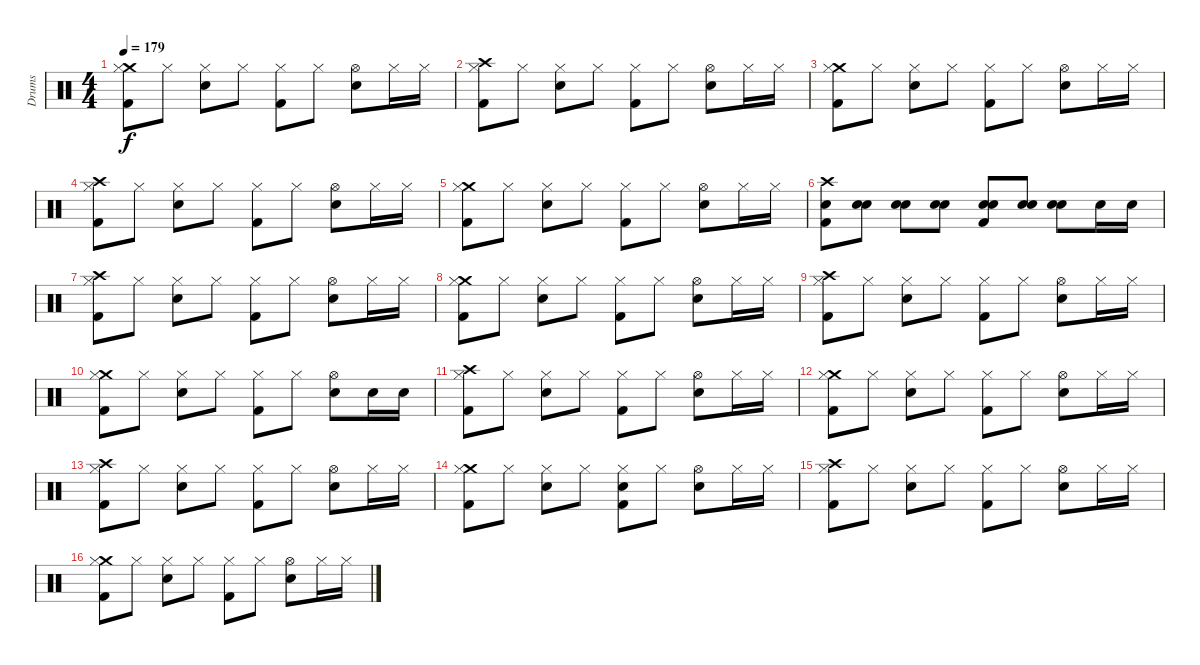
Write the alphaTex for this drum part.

\track ("Drums" "Drums") {instrument percussion}
\staff {score}
\articulation defaults
\ts (4 4)
\tempo 179
\clef neutral
\ks c
("Crash medium (hit)" "Hi-Hat (closed)" "Kick (hit) 2").8{dy f} "Hi-Hat (closed)".8 ("Hi-Hat (closed)" "Electric Snare (hit)").8 "Hi-Hat (closed)".8 ("Hi-Hat (closed)" "Kick (hit) 2").8 "Hi-Hat (closed)".8 ("Hi-Hat (open)" "Electric Snare (hit)").8 "Hi-Hat (closed)".16 "Hi-Hat (closed)".16 |
("Crash high (hit)" "Hi-Hat (closed)" "Kick (hit) 2").8 "Hi-Hat (closed)".8 ("Hi-Hat (closed)" "Electric Snare (hit)").8 "Hi-Hat (closed)".8 ("Hi-Hat (closed)" "Kick (hit) 2").8 "Hi-Hat (closed)".8 ("Hi-Hat (open)" "Electric Snare (hit)").8 "Hi-Hat (closed)".16 "Hi-Hat (closed)".16 |
("Crash medium (hit)" "Hi-Hat (closed)" "Kick (hit) 2").8 "Hi-Hat (closed)".8 ("Hi-Hat (closed)" "Electric Snare (hit)").8 "Hi-Hat (closed)".8 ("Hi-Hat (closed)" "Kick (hit) 2").8 "Hi-Hat (closed)".8 ("Hi-Hat (open)" "Electric Snare (hit)").8 "Hi-Hat (closed)".16 "Hi-Hat (closed)".16 |
("Crash high (hit)" "Hi-Hat (closed)" "Kick (hit) 2").8 "Hi-Hat (closed)".8 ("Hi-Hat (closed)" "Electric Snare (hit)").8 "Hi-Hat (closed)".8 ("Hi-Hat (closed)" "Kick (hit) 2").8 "Hi-Hat (closed)".8 ("Hi-Hat (open)" "Electric Snare (hit)").8 "Hi-Hat (closed)".16 "Hi-Hat (closed)".16 |
("Crash medium (hit)" "Hi-Hat (closed)" "Kick (hit) 2").8 "Hi-Hat (closed)".8 ("Hi-Hat (closed)" "Electric Snare (hit)").8 "Hi-Hat (closed)".8 ("Hi-Hat (closed)" "Kick (hit) 2").8 "Hi-Hat (closed)".8 ("Hi-Hat (open)" "Electric Snare (hit)").8 "Hi-Hat (closed)".16 "Hi-Hat (closed)".16 |
("Crash high (hit)" "Kick (hit) 2" "Electric Snare (hit)").8 ("Electric Snare (hit)" "Electric Snare (hit)").8 ("Electric Snare (hit)" "Electric Snare (hit)").8 ("Electric Snare (hit)" "Electric Snare (hit)").8 ("Kick (hit) 2" "Electric Snare (hit)" "Electric Snare (hit)").8 ("Electric Snare (hit)" "Electric Snare (hit)").8 ("Electric Snare (hit)" "Electric Snare (hit)").8 "Electric Snare (hit)".16 "Electric Snare (hit)".16 |
("Crash high (hit)" "Hi-Hat (closed)" "Kick (hit) 2").8 "Hi-Hat (closed)".8 ("Hi-Hat (closed)" "Electric Snare (hit)").8 "Hi-Hat (closed)".8 ("Hi-Hat (closed)" "Kick (hit) 2").8 "Hi-Hat (closed)".8 ("Hi-Hat (open)" "Electric Snare (hit)").8 "Hi-Hat (closed)".16 "Hi-Hat (closed)".16 |
("Crash medium (hit)" "Hi-Hat (closed)" "Kick (hit) 2").8 "Hi-Hat (closed)".8 ("Hi-Hat (closed)" "Electric Snare (hit)").8 "Hi-Hat (closed)".8 ("Hi-Hat (closed)" "Kick (hit) 2").8 "Hi-Hat (closed)".8 ("Hi-Hat (open)" "Electric Snare (hit)").8 "Hi-Hat (closed)".16 "Hi-Hat (closed)".16 |
("Crash high (hit)" "Hi-Hat (closed)" "Kick (hit) 2").8 "Hi-Hat (closed)".8 ("Hi-Hat (closed)" "Electric Snare (hit)").8 "Hi-Hat (closed)".8 ("Hi-Hat (closed)" "Kick (hit) 2").8 "Hi-Hat (closed)".8 ("Hi-Hat (open)" "Electric Snare (hit)").8 "Hi-Hat (closed)".16 "Hi-Hat (closed)".16 |
("Crash medium (hit)" "Hi-Hat (closed)" "Kick (hit) 2").8 "Hi-Hat (closed)".8 ("Hi-Hat (closed)" "Electric Snare (hit)").8 "Hi-Hat (closed)".8 ("Hi-Hat (closed)" "Kick (hit) 2").8 "Hi-Hat (closed)".8 ("Hi-Hat (open)" "Electric Snare (hit)").8 "Electric Snare (hit)".16 "Electric Snare (hit)".16 |
("Crash high (hit)" "Hi-Hat (closed)" "Kick (hit) 2").8 "Hi-Hat (closed)".8 ("Hi-Hat (closed)" "Electric Snare (hit)").8 "Hi-Hat (closed)".8 ("Hi-Hat (closed)" "Kick (hit) 2").8 "Hi-Hat (closed)".8 ("Hi-Hat (open)" "Electric Snare (hit)").8 "Hi-Hat (closed)".16 "Hi-Hat (closed)".16 |
("Crash medium (hit)" "Hi-Hat (closed)" "Kick (hit) 2").8 "Hi-Hat (closed)".8 ("Hi-Hat (closed)" "Electric Snare (hit)").8 "Hi-Hat (closed)".8 ("Hi-Hat (closed)" "Kick (hit) 2").8 "Hi-Hat (closed)".8 ("Hi-Hat (open)" "Electric Snare (hit)").8 "Hi-Hat (closed)".16 "Hi-Hat (closed)".16 |
("Crash high (hit)" "Hi-Hat (closed)" "Kick (hit) 2").8 "Hi-Hat (closed)".8 ("Hi-Hat (closed)" "Electric Snare (hit)").8 "Hi-Hat (closed)".8 ("Hi-Hat (closed)" "Kick (hit) 2").8 "Hi-Hat (closed)".8 ("Hi-Hat (open)" "Electric Snare (hit)").8 "Hi-Hat (closed)".16 "Hi-Hat (closed)".16 |
("Crash medium (hit)" "Hi-Hat (closed)" "Kick (hit) 2").8 "Hi-Hat (closed)".8 ("Hi-Hat (closed)" "Electric Snare (hit)").8 "Hi-Hat (closed)".8 ("Electric Snare (hit)" "Hi-Hat (closed)" "Kick (hit) 2").8 "Hi-Hat (closed)".8 ("Hi-Hat (open)" "Electric Snare (hit)").8 "Hi-Hat (closed)".16 "Hi-Hat (closed)".16 |
("Crash high (hit)" "Hi-Hat (closed)" "Kick (hit) 2").8 "Hi-Hat (closed)".8 ("Hi-Hat (closed)" "Electric Snare (hit)").8 "Hi-Hat (closed)".8 ("Hi-Hat (closed)" "Kick (hit) 2").8 "Hi-Hat (closed)".8 ("Hi-Hat (open)" "Electric Snare (hit)").8 "Hi-Hat (closed)".16 "Hi-Hat (closed)".16 |
("Crash medium (hit)" "Hi-Hat (closed)" "Kick (hit) 2").8 "Hi-Hat (closed)".8 ("Hi-Hat (closed)" "Electric Snare (hit)").8 "Hi-Hat (closed)".8 ("Hi-Hat (closed)" "Kick (hit) 2").8 "Hi-Hat (closed)".8 ("Hi-Hat (open)" "Electric Snare (hit)").8 "Hi-Hat (closed)".16 "Hi-Hat (closed)".16
